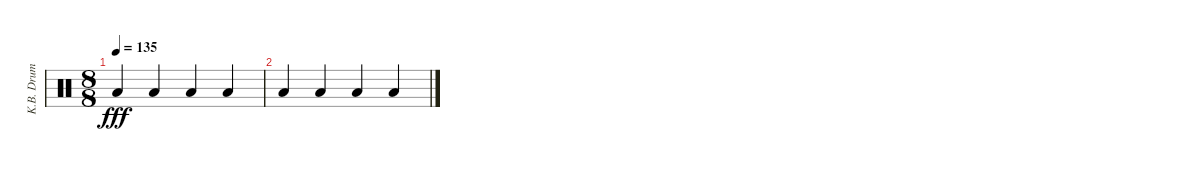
\track ("K.B. Drum" "K.B. Drum") {instrument percussion}
\staff {score}
\articulation defaults
\ts (8 8)
\tempo 135
\clef neutral
\ks c "Low Tom (hit)".4{dy fff} "Low Tom (hit)".4 "Low Tom (hit)".4 "Low Tom (hit)".4
|
"Low Tom (hit)".4 "Low Tom (hit)".4 "Low Tom (hit)".4 "Low Tom (hit)".4
